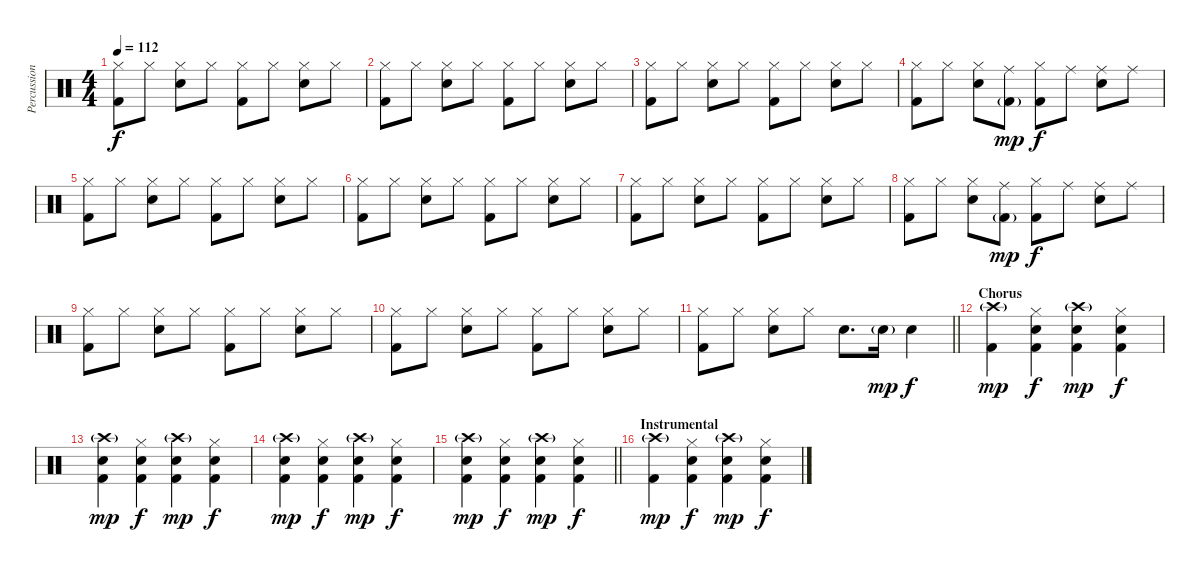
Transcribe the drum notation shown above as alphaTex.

\track ("Percussion" "Percussion") {instrument percussion}
\staff {score}
\articulation defaults
\ts (4 4)
\tempo 112
\clef neutral
\ks c
("Hi-Hat (closed)" "Kick (hit) 2").8{dy f} "Hi-Hat (closed)".8 ("Hi-Hat (closed)" "Snare (hit) 2").8 "Hi-Hat (closed)".8 ("Hi-Hat (closed)" "Kick (hit) 2").8 "Hi-Hat (closed)".8 ("Hi-Hat (closed)" "Snare (hit) 2").8 "Hi-Hat (closed)".8 |
("Hi-Hat (closed)" "Kick (hit) 2").8 "Hi-Hat (closed)".8 ("Hi-Hat (closed)" "Snare (hit) 2").8 "Hi-Hat (closed)".8 ("Hi-Hat (closed)" "Kick (hit) 2").8 "Hi-Hat (closed)".8 ("Hi-Hat (closed)" "Snare (hit) 2").8 "Hi-Hat (closed)".8 |
("Hi-Hat (closed)" "Kick (hit) 2").8 "Hi-Hat (closed)".8 ("Hi-Hat (closed)" "Snare (hit) 2").8 "Hi-Hat (closed)".8 ("Hi-Hat (closed)" "Kick (hit) 2").8 "Hi-Hat (closed)".8 ("Hi-Hat (closed)" "Snare (hit) 2").8 "Hi-Hat (closed)".8 |
("Hi-Hat (closed)" "Kick (hit) 2").8 "Hi-Hat (closed)".8 ("Hi-Hat (closed)" "Snare (hit) 2").8 ("Ride (middle)" "Kick (hit) 2"{g}).8{dy mp} ("Hi-Hat (closed)" "Kick (hit) 2").8{dy f} "Ride (middle)".8 ("Ride (middle)" "Snare (hit) 2").8 "Ride (middle)".8 |
("Hi-Hat (closed)" "Kick (hit) 2").8 "Hi-Hat (closed)".8 ("Hi-Hat (closed)" "Snare (hit) 2").8 "Hi-Hat (closed)".8 ("Hi-Hat (closed)" "Kick (hit) 2").8 "Hi-Hat (closed)".8 ("Hi-Hat (closed)" "Snare (hit) 2").8 "Hi-Hat (closed)".8 |
("Hi-Hat (closed)" "Kick (hit) 2").8 "Hi-Hat (closed)".8 ("Hi-Hat (closed)" "Snare (hit) 2").8 "Hi-Hat (closed)".8 ("Hi-Hat (closed)" "Kick (hit) 2").8 "Hi-Hat (closed)".8 ("Hi-Hat (closed)" "Snare (hit) 2").8 "Hi-Hat (closed)".8 |
("Hi-Hat (closed)" "Kick (hit) 2").8 "Hi-Hat (closed)".8 ("Hi-Hat (closed)" "Snare (hit) 2").8 "Hi-Hat (closed)".8 ("Hi-Hat (closed)" "Kick (hit) 2").8 "Hi-Hat (closed)".8 ("Hi-Hat (closed)" "Snare (hit) 2").8 "Hi-Hat (closed)".8 |
("Hi-Hat (closed)" "Kick (hit) 2").8 "Hi-Hat (closed)".8 ("Hi-Hat (closed)" "Snare (hit) 2").8 ("Ride (middle)" "Kick (hit) 2"{g}).8{dy mp} ("Hi-Hat (closed)" "Kick (hit) 2").8{dy f} "Ride (middle)".8 ("Ride (middle)" "Snare (hit) 2").8 "Ride (middle)".8 |
("Hi-Hat (closed)" "Kick (hit) 2").8 "Hi-Hat (closed)".8 ("Hi-Hat (closed)" "Snare (hit) 2").8 "Hi-Hat (closed)".8 ("Hi-Hat (closed)" "Kick (hit) 2").8 "Hi-Hat (closed)".8 ("Hi-Hat (closed)" "Snare (hit) 2").8 "Hi-Hat (closed)".8 |
("Hi-Hat (closed)" "Kick (hit) 2").8 "Hi-Hat (closed)".8 ("Hi-Hat (closed)" "Snare (hit) 2").8 "Hi-Hat (closed)".8 ("Hi-Hat (closed)" "Kick (hit) 2").8 "Hi-Hat (closed)".8 ("Hi-Hat (closed)" "Snare (hit) 2").8 "Hi-Hat (closed)".8 |
\barLineRight lightlight
("Hi-Hat (closed)" "Kick (hit) 2").8 "Hi-Hat (closed)".8 ("Hi-Hat (closed)" "Snare (hit) 2").8 "Hi-Hat (closed)".8 "Snare (hit) 2".8{d} "Snare (hit) 2"{g}.16{dy mp} "Snare (hit) 2".4{dy f} |
\section ("" "Chorus")
("Crash high (hit)"{g} "Kick (hit) 2").4{dy mp} ("Hi-Hat (closed)" "Snare (hit) 2" "Kick (hit) 2").4{dy f} ("Crash high (hit)"{g} "Snare (hit) 2" "Kick (hit) 2").4{dy mp} ("Hi-Hat (closed)" "Snare (hit) 2" "Kick (hit) 2").4{dy f} |
("Crash high (hit)"{g} "Snare (hit) 2" "Kick (hit) 2").4{dy mp} ("Hi-Hat (closed)" "Snare (hit) 2" "Kick (hit) 2").4{dy f} ("Crash high (hit)"{g} "Snare (hit) 2" "Kick (hit) 2").4{dy mp} ("Hi-Hat (closed)" "Snare (hit) 2" "Kick (hit) 2").4{dy f} |
("Crash high (hit)"{g} "Snare (hit) 2" "Kick (hit) 2").4{dy mp} ("Hi-Hat (closed)" "Snare (hit) 2" "Kick (hit) 2").4{dy f} ("Crash high (hit)"{g} "Snare (hit) 2" "Kick (hit) 2").4{dy mp} ("Hi-Hat (closed)" "Snare (hit) 2" "Kick (hit) 2").4{dy f} |
\barLineRight lightlight
("Crash high (hit)"{g} "Snare (hit) 2" "Kick (hit) 2").4{dy mp} ("Hi-Hat (closed)" "Snare (hit) 2" "Kick (hit) 2").4{dy f} ("Crash high (hit)"{g} "Snare (hit) 2" "Kick (hit) 2").4{dy mp} ("Hi-Hat (closed)" "Snare (hit) 2" "Kick (hit) 2").4{dy f} |
\section ("" "Instrumental")
("Crash high (hit)"{g} "Kick (hit) 2").4{dy mp} ("Hi-Hat (closed)" "Snare (hit) 2" "Kick (hit) 2").4{dy f} ("Crash high (hit)"{g} "Snare (hit) 2" "Kick (hit) 2").4{dy mp} ("Hi-Hat (closed)" "Snare (hit) 2" "Kick (hit) 2").4{dy f}
